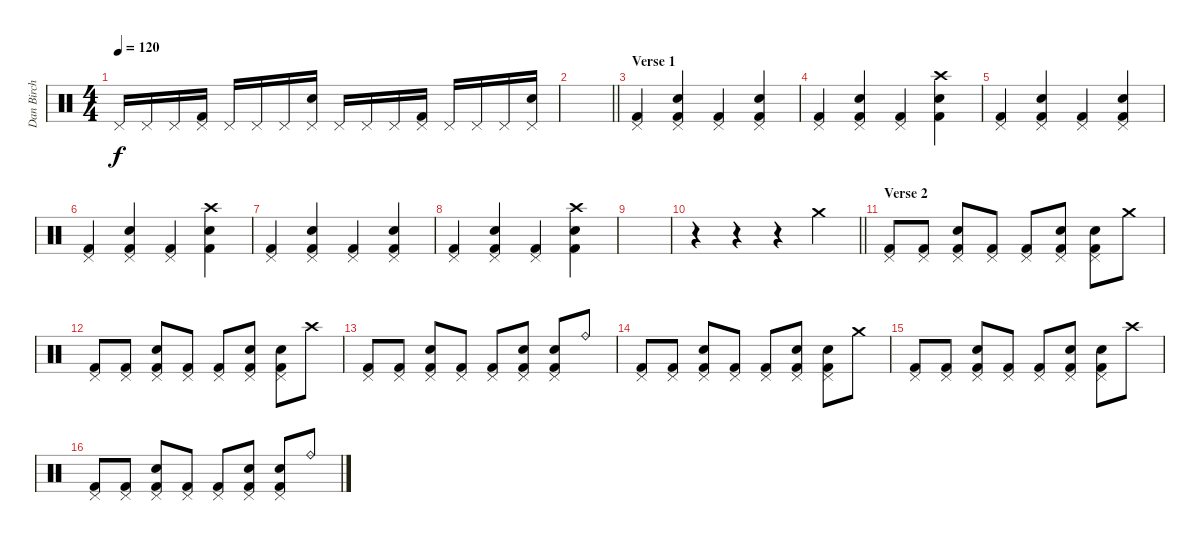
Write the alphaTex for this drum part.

\track ("Dan Birch" "Dan Birch") {instrument percussion}
\staff {score}
\articulation defaults
\ts (4 4)
\tempo 120
\clef neutral
\ks c "Pedal Hi-Hat (hit)".16{dy f} "Pedal Hi-Hat (hit)".16 "Pedal Hi-Hat (hit)".16
("Pedal Hi-Hat (hit)" "Kick (hit) 2").16 "Pedal Hi-Hat (hit)".16 "Pedal Hi-Hat (hit)".16 "Pedal Hi-Hat (hit)".16 ("Pedal Hi-Hat (hit)" "Snare (hit) 2").16 "Pedal Hi-Hat (hit)".16 "Pedal Hi-Hat (hit)".16 "Pedal Hi-Hat (hit)".16 ("Pedal Hi-Hat (hit)" "Kick (hit) 2").16 "Pedal Hi-Hat (hit)".16 "Pedal Hi-Hat (hit)".16 "Pedal Hi-Hat (hit)".16 ("Pedal Hi-Hat (hit)" "Snare (hit) 2").16 |
\barLineRight lightlight
|
\section ("" "Verse 1")
("Pedal Hi-Hat (hit)" "Kick (hit) 2").4 ("Pedal Hi-Hat (hit)" "Snare (hit) 2" "Kick (hit) 2").4 ("Pedal Hi-Hat (hit)" "Kick (hit) 2").4 ("Pedal Hi-Hat (hit)" "Snare (hit) 2" "Kick (hit) 2").4 |
("Pedal Hi-Hat (hit)" "Kick (hit) 2").4 ("Pedal Hi-Hat (hit)" "Snare (hit) 2" "Kick (hit) 2").4 ("Pedal Hi-Hat (hit)" "Kick (hit) 2").4 ("Crash high (hit)" "Snare (hit) 2" "Kick (hit) 2").4 |
("Pedal Hi-Hat (hit)" "Kick (hit) 2").4 ("Pedal Hi-Hat (hit)" "Snare (hit) 2" "Kick (hit) 2").4 ("Pedal Hi-Hat (hit)" "Kick (hit) 2").4 ("Pedal Hi-Hat (hit)" "Snare (hit) 2" "Kick (hit) 2").4 |
("Pedal Hi-Hat (hit)" "Kick (hit) 2").4 ("Pedal Hi-Hat (hit)" "Snare (hit) 2" "Kick (hit) 2").4 ("Pedal Hi-Hat (hit)" "Kick (hit) 2").4 ("Crash high (hit)" "Snare (hit) 2" "Kick (hit) 2").4 |
("Pedal Hi-Hat (hit)" "Kick (hit) 2").4 ("Pedal Hi-Hat (hit)" "Snare (hit) 2" "Kick (hit) 2").4 ("Pedal Hi-Hat (hit)" "Kick (hit) 2").4 ("Pedal Hi-Hat (hit)" "Snare (hit) 2" "Kick (hit) 2").4 |
("Pedal Hi-Hat (hit)" "Kick (hit) 2").4 ("Pedal Hi-Hat (hit)" "Snare (hit) 2" "Kick (hit) 2").4 ("Pedal Hi-Hat (hit)" "Kick (hit) 2").4 ("Crash high (hit)" "Snare (hit) 2" "Kick (hit) 2").4 |
|
\barLineRight lightlight
r.4 r.4 r.4 "Crash medium (hit)".4 |
\section ("" "Verse 2")
("Pedal Hi-Hat (hit)" "Kick (hit) 2").8 ("Pedal Hi-Hat (hit)" "Kick (hit) 2").8 ("Pedal Hi-Hat (hit)" "Snare (hit) 2" "Kick (hit) 2").8 ("Pedal Hi-Hat (hit)" "Kick (hit) 2").8 ("Pedal Hi-Hat (hit)" "Kick (hit) 2").8 ("Pedal Hi-Hat (hit)" "Snare (hit) 2" "Kick (hit) 2").8 ("Pedal Hi-Hat (hit)" "Snare (hit) 2" "Kick (hit) 2").8 "Crash medium (hit)".8 |
("Pedal Hi-Hat (hit)" "Kick (hit) 2").8 ("Pedal Hi-Hat (hit)" "Kick (hit) 2").8 ("Pedal Hi-Hat (hit)" "Snare (hit) 2" "Kick (hit) 2").8 ("Pedal Hi-Hat (hit)" "Kick (hit) 2").8 ("Pedal Hi-Hat (hit)" "Kick (hit) 2").8 ("Pedal Hi-Hat (hit)" "Snare (hit) 2" "Kick (hit) 2").8 ("Pedal Hi-Hat (hit)" "Snare (hit) 2" "Kick (hit) 2").8 "Crash high (hit)".8 |
("Pedal Hi-Hat (hit)" "Kick (hit) 2").8 ("Pedal Hi-Hat (hit)" "Kick (hit) 2").8 ("Pedal Hi-Hat (hit)" "Snare (hit) 2" "Kick (hit) 2").8 ("Pedal Hi-Hat (hit)" "Kick (hit) 2").8 ("Pedal Hi-Hat (hit)" "Kick (hit) 2").8 ("Pedal Hi-Hat (hit)" "Snare (hit) 2" "Kick (hit) 2").8 ("Pedal Hi-Hat (hit)" "Snare (hit) 2" "Kick (hit) 2").8 "Ride (bell)".8 |
("Pedal Hi-Hat (hit)" "Kick (hit) 2").8 ("Pedal Hi-Hat (hit)" "Kick (hit) 2").8 ("Pedal Hi-Hat (hit)" "Snare (hit) 2" "Kick (hit) 2").8 ("Pedal Hi-Hat (hit)" "Kick (hit) 2").8 ("Pedal Hi-Hat (hit)" "Kick (hit) 2").8 ("Pedal Hi-Hat (hit)" "Snare (hit) 2" "Kick (hit) 2").8 ("Pedal Hi-Hat (hit)" "Snare (hit) 2" "Kick (hit) 2").8 "Crash medium (hit)".8 |
("Pedal Hi-Hat (hit)" "Kick (hit) 2").8 ("Pedal Hi-Hat (hit)" "Kick (hit) 2").8 ("Pedal Hi-Hat (hit)" "Snare (hit) 2" "Kick (hit) 2").8 ("Pedal Hi-Hat (hit)" "Kick (hit) 2").8 ("Pedal Hi-Hat (hit)" "Kick (hit) 2").8 ("Pedal Hi-Hat (hit)" "Snare (hit) 2" "Kick (hit) 2").8 ("Pedal Hi-Hat (hit)" "Snare (hit) 2" "Kick (hit) 2").8 "Crash high (hit)".8 |
("Pedal Hi-Hat (hit)" "Kick (hit) 2").8 ("Pedal Hi-Hat (hit)" "Kick (hit) 2").8 ("Pedal Hi-Hat (hit)" "Snare (hit) 2" "Kick (hit) 2").8 ("Pedal Hi-Hat (hit)" "Kick (hit) 2").8 ("Pedal Hi-Hat (hit)" "Kick (hit) 2").8 ("Pedal Hi-Hat (hit)" "Snare (hit) 2" "Kick (hit) 2").8 ("Pedal Hi-Hat (hit)" "Snare (hit) 2" "Kick (hit) 2").8 "Ride (bell)".8
